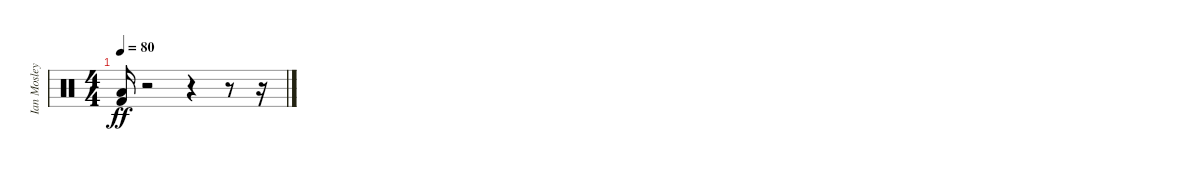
\track ("Ian Mosley" "Ian Mosley") {instrument percussion}
\staff {score}
\articulation defaults
\ts (4 4)
\tempo 80
\clef neutral
\ks c
("Kick (hit) 2" "Low Floor Tom (hit)").16{dy ff} r.2 r.4 r.8 r.16
